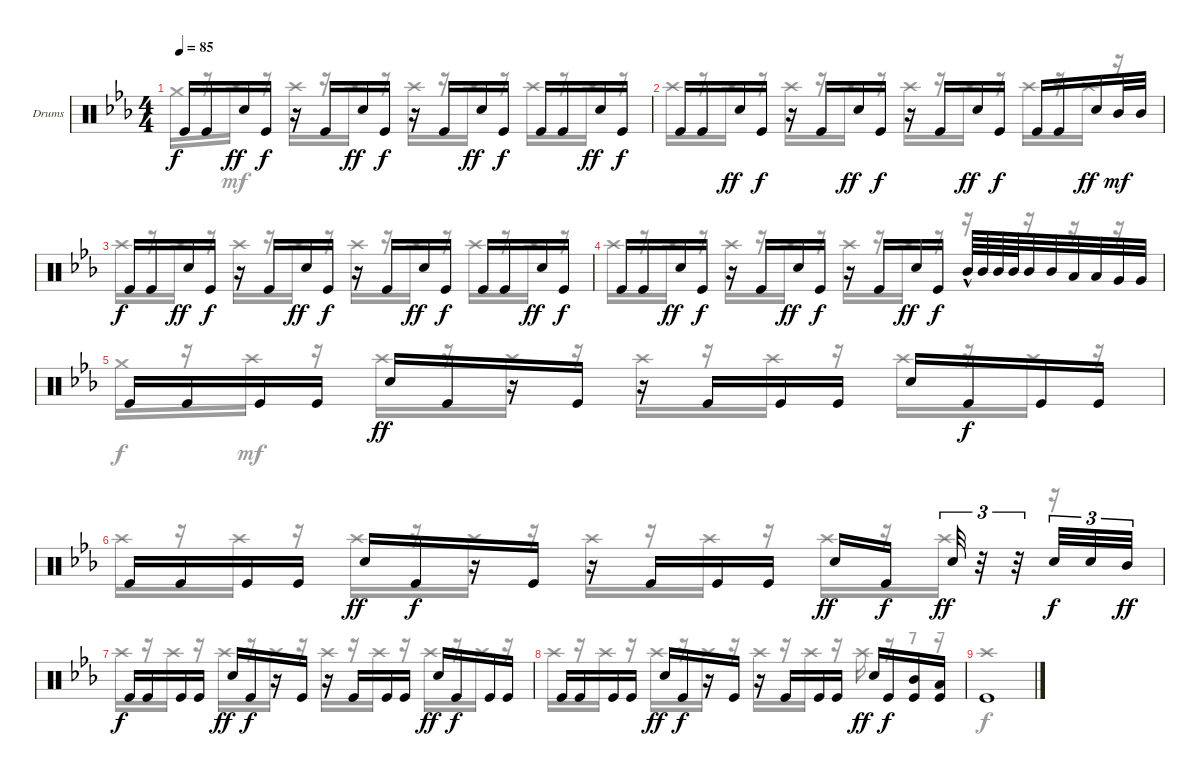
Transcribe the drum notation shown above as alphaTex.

\defaultSystemsLayout 4
\bracketExtendMode groupsimilarinstruments
\firstSystemTrackNameOrientation horizontal
\otherSystemsTrackNameOrientation horizontal
\track ("Drums" "Drums") {instrument percussion}
\staff {score}
\articulation defaults
\voice
\ts (4 4)
\tempo 85
\clef neutral
\ks eb "Kick (hit)".16{dy f} "Kick (hit)".16 "Snare (hit) 2".16{dy ff} "Kick (hit)".16{dy f}
r.16 "Kick (hit)".16 "Snare (hit) 2".16{dy ff} "Kick (hit)".16{dy f} r.16 "Kick (hit)".16 "Snare (hit) 2".16{dy ff} "Kick (hit)".16{dy f} "Kick (hit)".16 "Kick (hit)".16 "Snare (hit) 2".16{dy ff} "Kick (hit)".16{dy f} |
"Kick (hit)".16 "Kick (hit)".16 "Snare (hit) 2".16{dy ff} "Kick (hit)".16{dy f} r.16 "Kick (hit)".16 "Snare (hit) 2".16{dy ff} "Kick (hit)".16{dy f} r.16 "Kick (hit)".16 "Snare (hit) 2".16{dy ff} "Kick (hit)".16{dy f} "Kick (hit)".16 "Kick (hit)".16 "Snare (hit) 2".16{dy ff} "Mid Tom (hit)".32{dy mf} "Mid Tom (hit)".32 |
"Kick (hit)".16{dy f} "Kick (hit)".16 "Snare (hit) 2".16{dy ff} "Kick (hit)".16{dy f} r.16 "Kick (hit)".16 "Snare (hit) 2".16{dy ff} "Kick (hit)".16{dy f} r.16 "Kick (hit)".16 "Snare (hit) 2".16{dy ff} "Kick (hit)".16{dy f} "Kick (hit)".16 "Kick (hit)".16 "Snare (hit) 2".16{dy ff} "Kick (hit)".16{dy f} |
"Kick (hit)".16 "Kick (hit)".16 "Snare (hit) 2".16{dy ff} "Kick (hit)".16{dy f} r.16 "Kick (hit)".16 "Snare (hit) 2".16{dy ff} "Kick (hit)".16{dy f} r.16 "Kick (hit)".16 "Snare (hit) 2".16{dy ff} "Kick (hit)".16{dy f} "Mid Tom (hit)"{hac}.64 "Mid Tom (hit)".64 "Mid Tom (hit)".64 "Mid Tom (hit)".64 "Mid Tom (hit)".32 "Mid Tom (hit)".32 "Low Tom (hit)".32 "Low Tom (hit)".32 "Very Low Tom (hit)".32 "Very Low Tom (hit)".32 |
\scale
0.445714 "Kick (hit)".16 "Kick (hit)".16 "Kick (hit)".16 "Kick (hit)".16 "Snare (hit) 2".16{dy ff} "Kick (hit)".16 r.16 "Kick (hit)".16 r.16 "Kick (hit)".16 "Kick (hit)".16 "Kick (hit)".16 "Snare (hit) 2".16 "Kick (hit)".16{dy f} "Kick (hit)".16 "Kick (hit)".16 |
\scale
0.554559 "Kick (hit)".16 "Kick (hit)".16 "Kick (hit)".16 "Kick (hit)".16 "Snare (hit) 2".16{dy ff} "Kick (hit)".16{dy f} r.16 "Kick (hit)".16 r.16 "Kick (hit)".16 "Kick (hit)".16 "Kick (hit)".16 "Snare (hit) 2".16{dy ff} "Kick (hit)".16{dy f} "Snare (hit) 2".32{tu (3 2) dy ff} r.32{tu (3 2)} r.32{tu (3 2)} "Snare (hit) 2".32{tu (3 2) dy f} "Snare (hit) 2".32{tu (3 2)} "Mid Tom (hit)".32{tu (3 2) dy ff} |
"Kick (hit)".16{dy f} "Kick (hit)".16 "Kick (hit)".16 "Kick (hit)".16 "Snare (hit) 2".16{dy ff} "Kick (hit)".16{dy f} r.16 "Kick (hit)".16 r.16 "Kick (hit)".16 "Kick (hit)".16 "Kick (hit)".16 "Snare (hit) 2".16{dy ff} "Kick (hit)".16{dy f} "Kick (hit)".16 "Kick (hit)".16 |
"Kick (hit)".16 "Kick (hit)".16 "Kick (hit)".16 "Kick (hit)".16 "Snare (hit) 2".16{dy ff} "Kick (hit)".16{dy f} r.16 "Kick (hit)".16 r.16 "Kick (hit)".16 "Kick (hit)".16 "Kick (hit)".16 "Snare (hit) 2".16{dy ff} "Kick (hit)".16{dy f} ("Kick (hit)" "Mid Tom (hit)").16 ("Kick (hit)" "Low Tom (hit)").16 |
"Kick (hit)".1 |
|
|
|
|
|
\voice
\clef neutral
\ottava regular
\simile none
\ks eb "Crash medium (hit)".16{dy f}
r.16 "Crash high (hit)".16{dy mf} r.16 "Crash high (hit)".16 r.16 "Crash high (hit)".16 r.16 "Crash high (hit)".16 r.16 "Crash high (hit)".16 r.16 "Crash high (hit)".16 r.16 "Crash high (hit)".16 r.16 |
"Crash high (hit)".16 r.16 "Crash high (hit)".16 r.16 "Crash high (hit)".16 r.16 "Crash high (hit)".16 r.16 "Crash high (hit)".16 r.16 "Crash high (hit)".16 r.16 "Crash high (hit)".16 r.16 "Crash high (hit)".16 r.16 |
"Crash high (hit)".16 r.16 "Crash high (hit)".16 r.16 "Crash high (hit)".16 r.16 "Crash high (hit)".16 r.16 "Crash high (hit)".16 r.16 "Crash high (hit)".16 r.16 "Crash high (hit)".16 r.16 "Crash high (hit)".16 r.16 |
"Crash high (hit)".16 r.16 "Crash high (hit)".16 r.16 "Crash high (hit)".16 r.16 "Crash high (hit)".16 r.16 "Crash high (hit)".16 r.16 "Crash high (hit)".16 r.16 r.16 r.16 r.16 r.16 |
"Crash medium (hit)".16{dy f} r.16 "Crash high (hit)".16{dy mf} r.16 "Crash high (hit)".16 r.16 "Crash high (hit)".16 r.16 "Crash high (hit)".16 r.16 "Crash high (hit)".16 r.16 "Crash high (hit)".16 r.16 "Crash high (hit)".16 r.16 |
"Crash high (hit)".16 r.16 "Crash high (hit)".16 r.16 "Crash high (hit)".16 r.16 "Crash high (hit)".16 r.16 "Crash high (hit)".16 r.16 "Crash high (hit)".16 r.16 "Crash high (hit)".16 r.16 "Crash high (hit)".16 r.16 |
"Crash high (hit)".16 r.16 "Crash high (hit)".16 r.16 "Crash high (hit)".16 r.16 "Crash high (hit)".16 r.16 "Crash high (hit)".16 r.16 "Crash high (hit)".16 r.16 "Crash high (hit)".16 r.16 "Crash high (hit)".16 r.16 |
"Crash high (hit)".16 r.16 "Crash high (hit)".16 r.16 "Crash high (hit)".16 r.16 "Crash high (hit)".16 r.16 "Crash high (hit)".16 r.16 "Crash high (hit)".16 r.16 "Crash high (hit)".16 r.16 r.16 r.16 |
"Crash high (hit)".1{dy f} |
|
|
|
|
|
